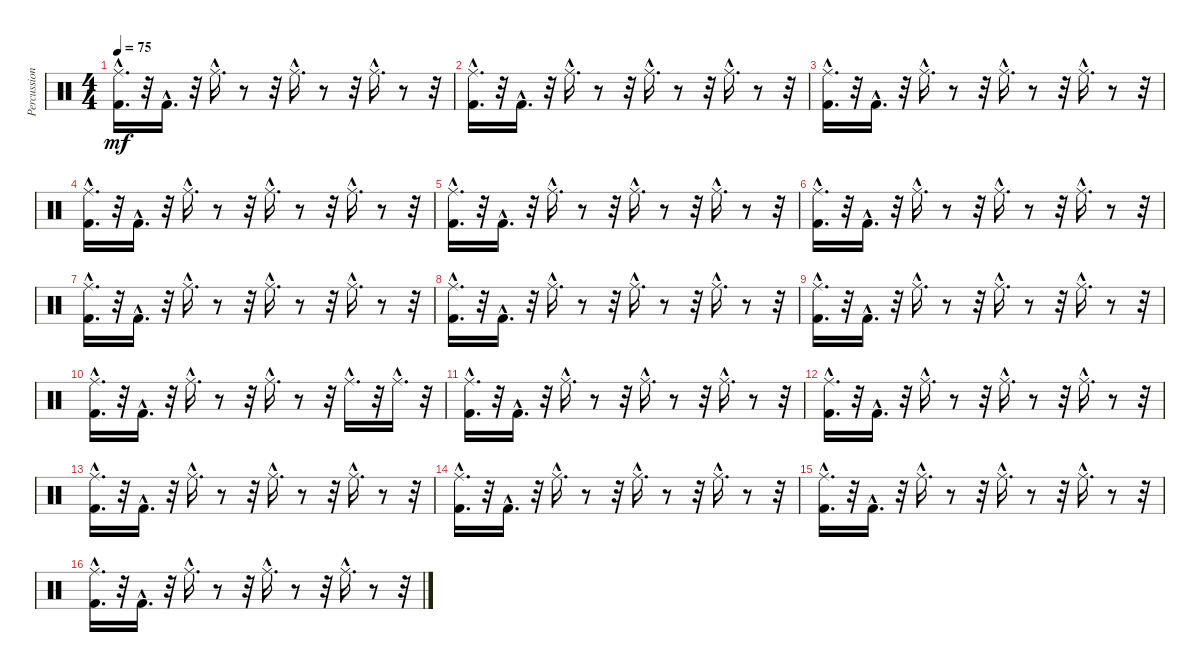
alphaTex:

\track ("Percussion" "Percussion") {instrument percussion}
\staff {score}
\articulation defaults
\ts (4 4)
\tempo 75
\clef neutral
\ks c
("Ride (middle)"{hac} "Kick (hit) 2"{hac}).16{d dy mf} r.32 "Kick (hit) 2"{hac}.16{d} r.32 "Ride (middle)"{hac}.16{d} r.8 r.32 "Ride (middle)"{hac}.16{d} r.8 r.32 "Ride (middle)"{hac}.16{d} r.8 r.32 |
("Kick (hit) 2"{hac} "Ride (middle)"{hac}).16{d} r.32 "Kick (hit) 2"{hac}.16{d} r.32 "Ride (middle)"{hac}.16{d} r.8 r.32 "Ride (middle)"{hac}.16{d} r.8 r.32 "Ride (middle)"{hac}.16{d} r.8 r.32 |
("Ride (middle)"{hac} "Kick (hit) 2"{hac}).16{d} r.32 "Kick (hit) 2"{hac}.16{d} r.32 "Ride (middle)"{hac}.16{d} r.8 r.32 "Ride (middle)"{hac}.16{d} r.8 r.32 "Ride (middle)"{hac}.16{d} r.8 r.32 |
("Ride (middle)"{hac} "Kick (hit) 2"{hac}).16{d} r.32 "Kick (hit) 2"{hac}.16{d} r.32 "Ride (middle)"{hac}.16{d} r.8 r.32 "Ride (middle)"{hac}.16{d} r.8 r.32 "Ride (middle)"{hac}.16{d} r.8 r.32 |
("Kick (hit) 2"{hac} "Ride (middle)"{hac}).16{d} r.32 "Kick (hit) 2"{hac}.16{d} r.32 "Ride (middle)"{hac}.16{d} r.8 r.32 "Ride (middle)"{hac}.16{d} r.8 r.32 "Ride (middle)"{hac}.16{d} r.8 r.32 |
("Ride (middle)"{hac} "Kick (hit) 2"{hac}).16{d} r.32 "Kick (hit) 2"{hac}.16{d} r.32 "Ride (middle)"{hac}.16{d} r.8 r.32 "Ride (middle)"{hac}.16{d} r.8 r.32 "Ride (middle)"{hac}.16{d} r.8 r.32 |
("Ride (middle)"{hac} "Kick (hit) 2"{hac}).16{d} r.32 "Kick (hit) 2"{hac}.16{d} r.32 "Ride (middle)"{hac}.16{d} r.8 r.32 "Ride (middle)"{hac}.16{d} r.8 r.32 "Ride (middle)"{hac}.16{d} r.8 r.32 |
("Kick (hit) 2"{hac} "Ride (middle)"{hac}).16{d} r.32 "Kick (hit) 2"{hac}.16{d} r.32 "Ride (middle)"{hac}.16{d} r.8 r.32 "Ride (middle)"{hac}.16{d} r.8 r.32 "Ride (middle)"{hac}.16{d} r.8 r.32 |
("Ride (middle)"{hac} "Kick (hit) 2"{hac}).16{d} r.32 "Kick (hit) 2"{hac}.16{d} r.32 "Ride (middle)"{hac}.16{d} r.8 r.32 "Ride (middle)"{hac}.16{d} r.8 r.32 "Ride (middle)"{hac}.16{d} r.8 r.32 |
("Ride (middle)"{hac} "Kick (hit) 2"{hac}).16{d} r.32 "Kick (hit) 2"{hac}.16{d} r.32 "Ride (middle)"{hac}.16{d} r.8 r.32 "Ride (middle)"{hac}.16{d} r.8 r.32 "Ride (middle)"{hac}.16{d} r.32 "Ride (middle)"{hac}.16{d} r.32 |
("Kick (hit) 2"{hac} "Ride (middle)"{hac}).16{d} r.32 "Kick (hit) 2"{hac}.16{d} r.32 "Ride (middle)"{hac}.16{d} r.8 r.32 "Ride (middle)"{hac}.16{d} r.8 r.32 "Ride (middle)"{hac}.16{d} r.8 r.32 |
("Ride (middle)"{hac} "Kick (hit) 2"{hac}).16{d} r.32 "Kick (hit) 2"{hac}.16{d} r.32 "Ride (middle)"{hac}.16{d} r.8 r.32 "Ride (middle)"{hac}.16{d} r.8 r.32 "Ride (middle)"{hac}.16{d} r.8 r.32 |
("Ride (middle)"{hac} "Kick (hit) 2"{hac}).16{d} r.32 "Kick (hit) 2"{hac}.16{d} r.32 "Ride (middle)"{hac}.16{d} r.8 r.32 "Ride (middle)"{hac}.16{d} r.8 r.32 "Ride (middle)"{hac}.16{d} r.8 r.32 |
("Kick (hit) 2"{hac} "Ride (middle)"{hac}).16{d} r.32 "Kick (hit) 2"{hac}.16{d} r.32 "Ride (middle)"{hac}.16{d} r.8 r.32 "Ride (middle)"{hac}.16{d} r.8 r.32 "Ride (middle)"{hac}.16{d} r.8 r.32 |
("Ride (middle)"{hac} "Kick (hit) 2"{hac}).16{d} r.32 "Kick (hit) 2"{hac}.16{d} r.32 "Ride (middle)"{hac}.16{d} r.8 r.32 "Ride (middle)"{hac}.16{d} r.8 r.32 "Ride (middle)"{hac}.16{d} r.8 r.32 |
("Ride (middle)"{hac} "Kick (hit) 2"{hac}).16{d} r.32 "Kick (hit) 2"{hac}.16{d} r.32 "Ride (middle)"{hac}.16{d} r.8 r.32 "Ride (middle)"{hac}.16{d} r.8 r.32 "Ride (middle)"{hac}.16{d} r.8 r.32
